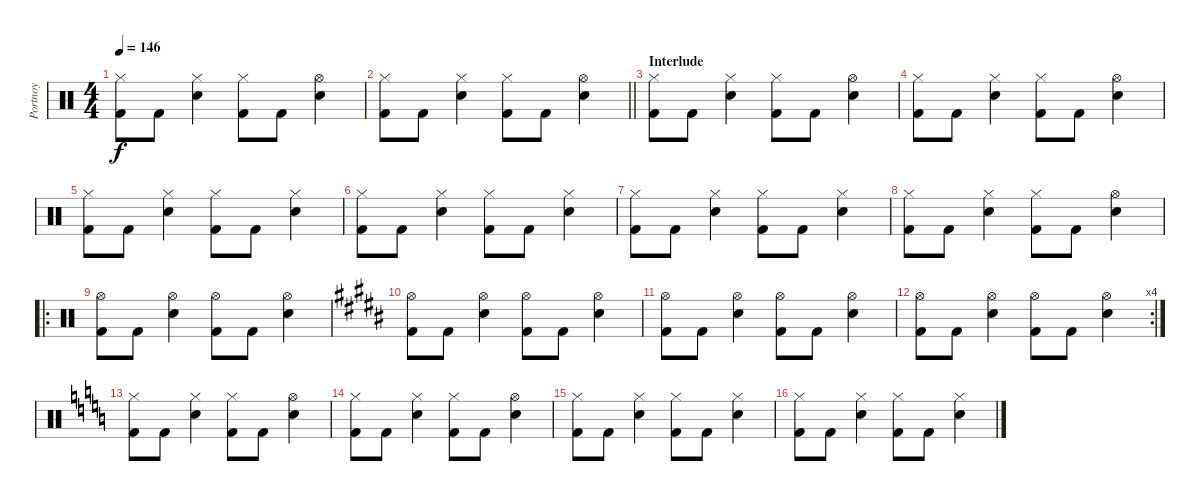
\track ("Portnoy" "Portnoy") {instrument percussion}
\staff {score}
\articulation defaults
\ts (4 4)
\tempo 146
\clef neutral
\ks c
("Hi-Hat (closed)" "Kick (hit) 2").8{dy f} "Kick (hit) 2".8 ("Hi-Hat (closed)" "Electric Snare (hit)").4 ("Hi-Hat (closed)" "Kick (hit) 2").8 "Kick (hit) 2".8 ("Hi-Hat (open)" "Electric Snare (hit)").4 |
\barLineRight lightlight
("Hi-Hat (closed)" "Kick (hit) 2").8 "Kick (hit) 2".8 ("Hi-Hat (closed)" "Electric Snare (hit)").4 ("Hi-Hat (closed)" "Kick (hit) 2").8 "Kick (hit) 2".8 ("Hi-Hat (open)" "Electric Snare (hit)").4 |
\section ("" "Interlude")
("Hi-Hat (closed)" "Kick (hit) 2").8 "Kick (hit) 2".8 ("Hi-Hat (closed)" "Electric Snare (hit)").4 ("Hi-Hat (closed)" "Kick (hit) 2").8 "Kick (hit) 2".8 ("Hi-Hat (open)" "Electric Snare (hit)").4 |
("Hi-Hat (closed)" "Kick (hit) 2").8 "Kick (hit) 2".8 ("Hi-Hat (closed)" "Electric Snare (hit)").4 ("Hi-Hat (closed)" "Kick (hit) 2").8 "Kick (hit) 2".8 ("Hi-Hat (open)" "Electric Snare (hit)").4 |
("Hi-Hat (closed)" "Kick (hit) 2").8 "Kick (hit) 2".8 ("Hi-Hat (closed)" "Electric Snare (hit)").4 ("Hi-Hat (closed)" "Kick (hit) 2").8 "Kick (hit) 2".8 ("Hi-Hat (closed)" "Electric Snare (hit)").4 |
("Hi-Hat (closed)" "Kick (hit) 2").8 "Kick (hit) 2".8 ("Hi-Hat (closed)" "Electric Snare (hit)").4 ("Hi-Hat (closed)" "Kick (hit) 2").8 "Kick (hit) 2".8 ("Hi-Hat (closed)" "Electric Snare (hit)").4 |
("Hi-Hat (closed)" "Kick (hit) 2").8 "Kick (hit) 2".8 ("Hi-Hat (closed)" "Electric Snare (hit)").4 ("Hi-Hat (closed)" "Kick (hit) 2").8 "Kick (hit) 2".8 ("Hi-Hat (closed)" "Electric Snare (hit)").4 |
("Hi-Hat (closed)" "Kick (hit) 2").8 "Kick (hit) 2".8 ("Hi-Hat (closed)" "Electric Snare (hit)").4 ("Hi-Hat (closed)" "Kick (hit) 2").8 "Kick (hit) 2".8 ("Hi-Hat (open)" "Electric Snare (hit)").4 |
\ro
("Hi-Hat (open)" "Kick (hit) 2").8 "Kick (hit) 2".8 ("Hi-Hat (open)" "Electric Snare (hit)").4 ("Hi-Hat (open)" "Kick (hit) 2").8 "Kick (hit) 2".8 ("Hi-Hat (open)" "Electric Snare (hit)").4 |
\ks g#minor
("Hi-Hat (open)" "Kick (hit) 2").8 "Kick (hit) 2".8 ("Hi-Hat (open)" "Electric Snare (hit)").4 ("Hi-Hat (open)" "Kick (hit) 2").8 "Kick (hit) 2".8 ("Hi-Hat (open)" "Electric Snare (hit)").4 |
("Hi-Hat (open)" "Kick (hit) 2").8 "Kick (hit) 2".8 ("Hi-Hat (open)" "Electric Snare (hit)").4 ("Hi-Hat (open)" "Kick (hit) 2").8 "Kick (hit) 2".8 ("Hi-Hat (open)" "Electric Snare (hit)").4 |
\rc 4
("Hi-Hat (open)" "Kick (hit) 2").8 "Kick (hit) 2".8 ("Hi-Hat (open)" "Electric Snare (hit)").4 ("Hi-Hat (open)" "Kick (hit) 2").8 "Kick (hit) 2".8 ("Hi-Hat (open)" "Electric Snare (hit)").4 |
\ks c
("Hi-Hat (closed)" "Kick (hit) 2").8 "Kick (hit) 2".8 ("Hi-Hat (closed)" "Electric Snare (hit)").4 ("Hi-Hat (closed)" "Kick (hit) 2").8 "Kick (hit) 2".8 ("Hi-Hat (open)" "Electric Snare (hit)").4 |
("Hi-Hat (closed)" "Kick (hit) 2").8 "Kick (hit) 2".8 ("Hi-Hat (closed)" "Electric Snare (hit)").4 ("Hi-Hat (closed)" "Kick (hit) 2").8 "Kick (hit) 2".8 ("Hi-Hat (open)" "Electric Snare (hit)").4 |
("Hi-Hat (closed)" "Kick (hit) 2").8 "Kick (hit) 2".8 ("Hi-Hat (closed)" "Electric Snare (hit)").4 ("Hi-Hat (closed)" "Kick (hit) 2").8 "Kick (hit) 2".8 ("Hi-Hat (closed)" "Electric Snare (hit)").4 |
("Hi-Hat (closed)" "Kick (hit) 2").8 "Kick (hit) 2".8 ("Hi-Hat (closed)" "Electric Snare (hit)").4 ("Hi-Hat (closed)" "Kick (hit) 2").8 "Kick (hit) 2".8 ("Hi-Hat (closed)" "Electric Snare (hit)").4
